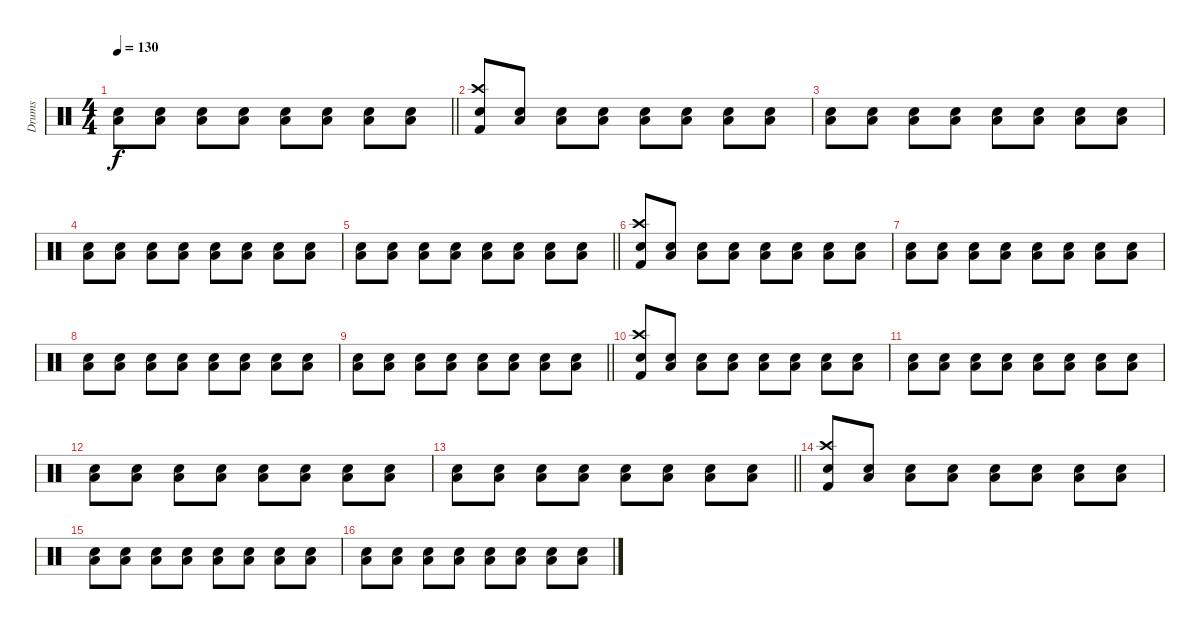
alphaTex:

\track ("Drums" "Drums") {instrument percussion}
\staff {score}
\articulation defaults
\ts (4 4)
\tempo 130
\clef neutral
\barLineRight lightlight
\ks c
("Snare (hit) 2" "Low Floor Tom (hit)").8{dy f} ("Snare (hit) 2" "Low Floor Tom (hit)").8 ("Snare (hit) 2" "Low Floor Tom (hit)").8 ("Snare (hit) 2" "Low Floor Tom (hit)").8 ("Snare (hit) 2" "Low Floor Tom (hit)").8 ("Snare (hit) 2" "Low Floor Tom (hit)").8 ("Snare (hit) 2" "Low Floor Tom (hit)").8 ("Snare (hit) 2" "Low Floor Tom (hit)").8 |
("Crash high (hit)" "Snare (hit) 2" "Kick (hit) 2").8 ("Snare (hit) 2" "Low Floor Tom (hit)").8 ("Snare (hit) 2" "Low Floor Tom (hit)").8 ("Snare (hit) 2" "Low Floor Tom (hit)").8 ("Snare (hit) 2" "Low Floor Tom (hit)").8 ("Snare (hit) 2" "Low Floor Tom (hit)").8 ("Snare (hit) 2" "Low Floor Tom (hit)").8 ("Snare (hit) 2" "Low Floor Tom (hit)").8 |
("Snare (hit) 2" "Low Floor Tom (hit)").8 ("Snare (hit) 2" "Low Floor Tom (hit)").8 ("Snare (hit) 2" "Low Floor Tom (hit)").8 ("Snare (hit) 2" "Low Floor Tom (hit)").8 ("Snare (hit) 2" "Low Floor Tom (hit)").8 ("Snare (hit) 2" "Low Floor Tom (hit)").8 ("Snare (hit) 2" "Low Floor Tom (hit)").8 ("Snare (hit) 2" "Low Floor Tom (hit)").8 |
("Snare (hit) 2" "Low Floor Tom (hit)").8 ("Snare (hit) 2" "Low Floor Tom (hit)").8 ("Snare (hit) 2" "Low Floor Tom (hit)").8 ("Snare (hit) 2" "Low Floor Tom (hit)").8 ("Snare (hit) 2" "Low Floor Tom (hit)").8 ("Snare (hit) 2" "Low Floor Tom (hit)").8 ("Snare (hit) 2" "Low Floor Tom (hit)").8 ("Snare (hit) 2" "Low Floor Tom (hit)").8 |
\barLineRight lightlight
("Snare (hit) 2" "Low Floor Tom (hit)").8 ("Snare (hit) 2" "Low Floor Tom (hit)").8 ("Snare (hit) 2" "Low Floor Tom (hit)").8 ("Snare (hit) 2" "Low Floor Tom (hit)").8 ("Snare (hit) 2" "Low Floor Tom (hit)").8 ("Snare (hit) 2" "Low Floor Tom (hit)").8 ("Snare (hit) 2" "Low Floor Tom (hit)").8 ("Snare (hit) 2" "Low Floor Tom (hit)").8 |
("Crash high (hit)" "Snare (hit) 2" "Kick (hit) 2").8 ("Snare (hit) 2" "Low Floor Tom (hit)").8 ("Snare (hit) 2" "Low Floor Tom (hit)").8 ("Snare (hit) 2" "Low Floor Tom (hit)").8 ("Snare (hit) 2" "Low Floor Tom (hit)").8 ("Snare (hit) 2" "Low Floor Tom (hit)").8 ("Snare (hit) 2" "Low Floor Tom (hit)").8 ("Snare (hit) 2" "Low Floor Tom (hit)").8 |
("Snare (hit) 2" "Low Floor Tom (hit)").8 ("Snare (hit) 2" "Low Floor Tom (hit)").8 ("Snare (hit) 2" "Low Floor Tom (hit)").8 ("Snare (hit) 2" "Low Floor Tom (hit)").8 ("Snare (hit) 2" "Low Floor Tom (hit)").8 ("Snare (hit) 2" "Low Floor Tom (hit)").8 ("Snare (hit) 2" "Low Floor Tom (hit)").8 ("Snare (hit) 2" "Low Floor Tom (hit)").8 |
("Snare (hit) 2" "Low Floor Tom (hit)").8 ("Snare (hit) 2" "Low Floor Tom (hit)").8 ("Snare (hit) 2" "Low Floor Tom (hit)").8 ("Snare (hit) 2" "Low Floor Tom (hit)").8 ("Snare (hit) 2" "Low Floor Tom (hit)").8 ("Snare (hit) 2" "Low Floor Tom (hit)").8 ("Snare (hit) 2" "Low Floor Tom (hit)").8 ("Snare (hit) 2" "Low Floor Tom (hit)").8 |
\barLineRight lightlight
("Snare (hit) 2" "Low Floor Tom (hit)").8 ("Snare (hit) 2" "Low Floor Tom (hit)").8 ("Snare (hit) 2" "Low Floor Tom (hit)").8 ("Snare (hit) 2" "Low Floor Tom (hit)").8 ("Snare (hit) 2" "Low Floor Tom (hit)").8 ("Snare (hit) 2" "Low Floor Tom (hit)").8 ("Snare (hit) 2" "Low Floor Tom (hit)").8 ("Snare (hit) 2" "Low Floor Tom (hit)").8 |
("Crash high (hit)" "Snare (hit) 2" "Kick (hit) 2").8 ("Snare (hit) 2" "Low Floor Tom (hit)").8 ("Snare (hit) 2" "Low Floor Tom (hit)").8 ("Snare (hit) 2" "Low Floor Tom (hit)").8 ("Snare (hit) 2" "Low Floor Tom (hit)").8 ("Snare (hit) 2" "Low Floor Tom (hit)").8 ("Snare (hit) 2" "Low Floor Tom (hit)").8 ("Snare (hit) 2" "Low Floor Tom (hit)").8 |
("Snare (hit) 2" "Low Floor Tom (hit)").8 ("Snare (hit) 2" "Low Floor Tom (hit)").8 ("Snare (hit) 2" "Low Floor Tom (hit)").8 ("Snare (hit) 2" "Low Floor Tom (hit)").8 ("Snare (hit) 2" "Low Floor Tom (hit)").8 ("Snare (hit) 2" "Low Floor Tom (hit)").8 ("Snare (hit) 2" "Low Floor Tom (hit)").8 ("Snare (hit) 2" "Low Floor Tom (hit)").8 |
("Snare (hit) 2" "Low Floor Tom (hit)").8 ("Snare (hit) 2" "Low Floor Tom (hit)").8 ("Snare (hit) 2" "Low Floor Tom (hit)").8 ("Snare (hit) 2" "Low Floor Tom (hit)").8 ("Snare (hit) 2" "Low Floor Tom (hit)").8 ("Snare (hit) 2" "Low Floor Tom (hit)").8 ("Snare (hit) 2" "Low Floor Tom (hit)").8 ("Snare (hit) 2" "Low Floor Tom (hit)").8 |
\barLineRight lightlight
("Snare (hit) 2" "Low Floor Tom (hit)").8 ("Snare (hit) 2" "Low Floor Tom (hit)").8 ("Snare (hit) 2" "Low Floor Tom (hit)").8 ("Snare (hit) 2" "Low Floor Tom (hit)").8 ("Snare (hit) 2" "Low Floor Tom (hit)").8 ("Snare (hit) 2" "Low Floor Tom (hit)").8 ("Snare (hit) 2" "Low Floor Tom (hit)").8 ("Snare (hit) 2" "Low Floor Tom (hit)").8 |
("Crash high (hit)" "Snare (hit) 2" "Kick (hit) 2").8 ("Snare (hit) 2" "Low Floor Tom (hit)").8 ("Snare (hit) 2" "Low Floor Tom (hit)").8 ("Snare (hit) 2" "Low Floor Tom (hit)").8 ("Snare (hit) 2" "Low Floor Tom (hit)").8 ("Snare (hit) 2" "Low Floor Tom (hit)").8 ("Snare (hit) 2" "Low Floor Tom (hit)").8 ("Snare (hit) 2" "Low Floor Tom (hit)").8 |
("Snare (hit) 2" "Low Floor Tom (hit)").8 ("Snare (hit) 2" "Low Floor Tom (hit)").8 ("Snare (hit) 2" "Low Floor Tom (hit)").8 ("Snare (hit) 2" "Low Floor Tom (hit)").8 ("Snare (hit) 2" "Low Floor Tom (hit)").8 ("Snare (hit) 2" "Low Floor Tom (hit)").8 ("Snare (hit) 2" "Low Floor Tom (hit)").8 ("Snare (hit) 2" "Low Floor Tom (hit)").8 |
("Snare (hit) 2" "Low Floor Tom (hit)").8 ("Snare (hit) 2" "Low Floor Tom (hit)").8 ("Snare (hit) 2" "Low Floor Tom (hit)").8 ("Snare (hit) 2" "Low Floor Tom (hit)").8 ("Snare (hit) 2" "Low Floor Tom (hit)").8 ("Snare (hit) 2" "Low Floor Tom (hit)").8 ("Snare (hit) 2" "Low Floor Tom (hit)").8 ("Snare (hit) 2" "Low Floor Tom (hit)").8
